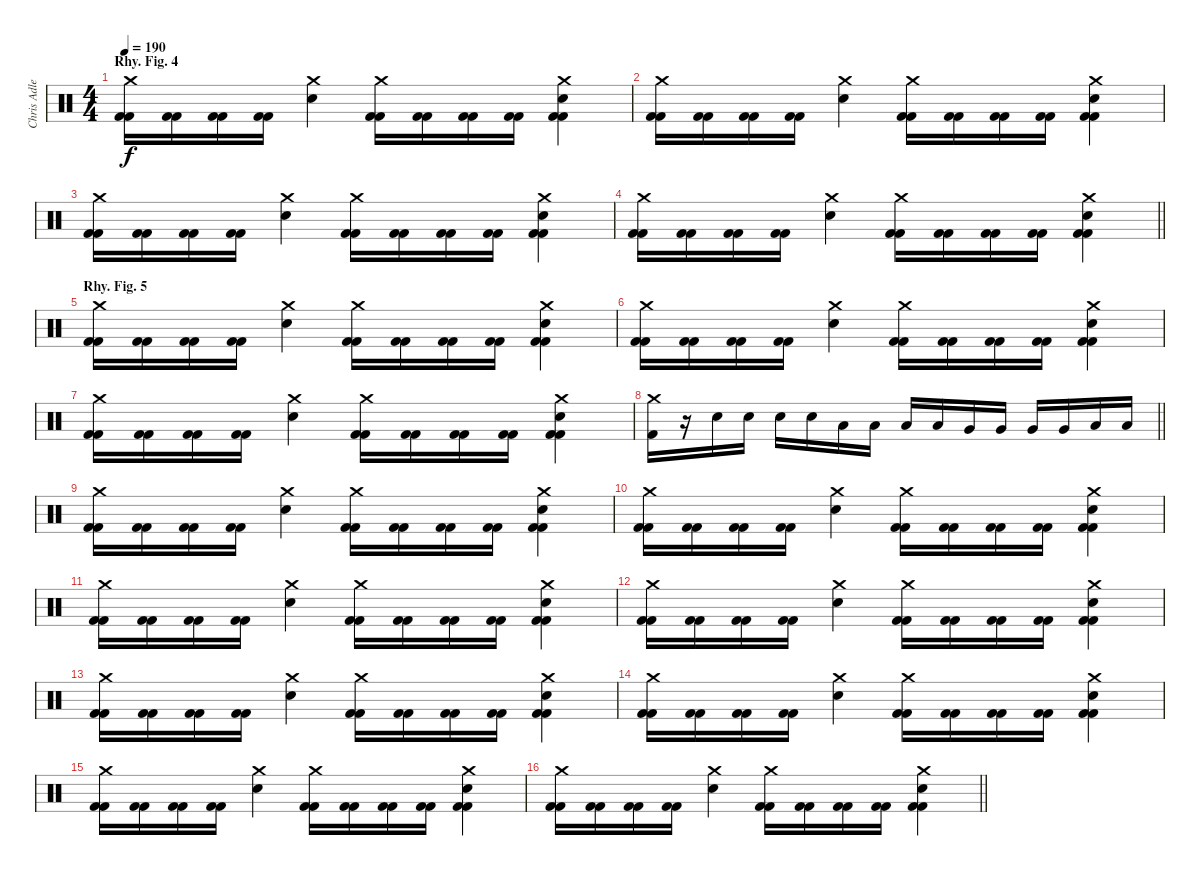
\track ("Chris Adler" "Chris Adle") {instrument percussion}
\staff {score}
\articulation defaults
\ts (4 4)
\section ("" "Rhy. Fig. 4")
\tempo 190
\clef neutral
\ks c
("Crash medium (hit)" "Kick (hit) 2" "Kick (hit) 2").16{dy f} ("Kick (hit) 2" "Kick (hit) 2").16 ("Kick (hit) 2" "Kick (hit) 2").16 ("Kick (hit) 2" "Kick (hit) 2").16 ("Crash medium (hit)" "Electric Snare (hit)").4 ("Crash medium (hit)" "Kick (hit) 2" "Kick (hit) 2").16 ("Kick (hit) 2" "Kick (hit) 2").16 ("Kick (hit) 2" "Kick (hit) 2").16 ("Kick (hit) 2" "Kick (hit) 2").16 ("Crash medium (hit)" "Electric Snare (hit)" "Kick (hit) 2" "Kick (hit) 2").4 |
("Crash medium (hit)" "Kick (hit) 2" "Kick (hit) 2").16 ("Kick (hit) 2" "Kick (hit) 2").16 ("Kick (hit) 2" "Kick (hit) 2").16 ("Kick (hit) 2" "Kick (hit) 2").16 ("Crash medium (hit)" "Electric Snare (hit)").4 ("Crash medium (hit)" "Kick (hit) 2" "Kick (hit) 2").16 ("Kick (hit) 2" "Kick (hit) 2").16 ("Kick (hit) 2" "Kick (hit) 2").16 ("Kick (hit) 2" "Kick (hit) 2").16 ("Crash medium (hit)" "Electric Snare (hit)" "Kick (hit) 2" "Kick (hit) 2").4 |
("Crash medium (hit)" "Kick (hit) 2" "Kick (hit) 2").16 ("Kick (hit) 2" "Kick (hit) 2").16 ("Kick (hit) 2" "Kick (hit) 2").16 ("Kick (hit) 2" "Kick (hit) 2").16 ("Crash medium (hit)" "Electric Snare (hit)").4 ("Crash medium (hit)" "Kick (hit) 2" "Kick (hit) 2").16 ("Kick (hit) 2" "Kick (hit) 2").16 ("Kick (hit) 2" "Kick (hit) 2").16 ("Kick (hit) 2" "Kick (hit) 2").16 ("Crash medium (hit)" "Electric Snare (hit)" "Kick (hit) 2" "Kick (hit) 2").4 |
\barLineRight lightlight
("Crash medium (hit)" "Kick (hit) 2" "Kick (hit) 2").16 ("Kick (hit) 2" "Kick (hit) 2").16 ("Kick (hit) 2" "Kick (hit) 2").16 ("Kick (hit) 2" "Kick (hit) 2").16 ("Crash medium (hit)" "Electric Snare (hit)").4 ("Crash medium (hit)" "Kick (hit) 2" "Kick (hit) 2").16 ("Kick (hit) 2" "Kick (hit) 2").16 ("Kick (hit) 2" "Kick (hit) 2").16 ("Kick (hit) 2" "Kick (hit) 2").16 ("Crash medium (hit)" "Electric Snare (hit)" "Kick (hit) 2" "Kick (hit) 2").4 |
\section ("" "Rhy. Fig. 5")
("Crash medium (hit)" "Kick (hit) 2" "Kick (hit) 2").16 ("Kick (hit) 2" "Kick (hit) 2").16 ("Kick (hit) 2" "Kick (hit) 2").16 ("Kick (hit) 2" "Kick (hit) 2").16 ("Crash medium (hit)" "Electric Snare (hit)").4 ("Crash medium (hit)" "Kick (hit) 2" "Kick (hit) 2").16 ("Kick (hit) 2" "Kick (hit) 2").16 ("Kick (hit) 2" "Kick (hit) 2").16 ("Kick (hit) 2" "Kick (hit) 2").16 ("Crash medium (hit)" "Electric Snare (hit)" "Kick (hit) 2" "Kick (hit) 2").4 |
("Crash medium (hit)" "Kick (hit) 2" "Kick (hit) 2").16 ("Kick (hit) 2" "Kick (hit) 2").16 ("Kick (hit) 2" "Kick (hit) 2").16 ("Kick (hit) 2" "Kick (hit) 2").16 ("Crash medium (hit)" "Electric Snare (hit)").4 ("Crash medium (hit)" "Kick (hit) 2" "Kick (hit) 2").16 ("Kick (hit) 2" "Kick (hit) 2").16 ("Kick (hit) 2" "Kick (hit) 2").16 ("Kick (hit) 2" "Kick (hit) 2").16 ("Crash medium (hit)" "Electric Snare (hit)" "Kick (hit) 2" "Kick (hit) 2").4 |
("Crash medium (hit)" "Kick (hit) 2" "Kick (hit) 2").16 ("Kick (hit) 2" "Kick (hit) 2").16 ("Kick (hit) 2" "Kick (hit) 2").16 ("Kick (hit) 2" "Kick (hit) 2").16 ("Crash medium (hit)" "Electric Snare (hit)").4 ("Crash medium (hit)" "Kick (hit) 2" "Kick (hit) 2").16 ("Kick (hit) 2" "Kick (hit) 2").16 ("Kick (hit) 2" "Kick (hit) 2").16 ("Kick (hit) 2" "Kick (hit) 2").16 ("Crash medium (hit)" "Electric Snare (hit)" "Kick (hit) 2" "Kick (hit) 2").4 |
\barLineRight lightlight
("Kick (hit) 2" "Crash medium (hit)").16 r.16 "Electric Snare (hit)".16 "Electric Snare (hit)".16 "Electric Snare (hit)".16 "Electric Snare (hit)".16 "Low Tom (hit)".16 "Low Tom (hit)".16 "Low Tom (hit)".16 "Low Tom (hit)".16 "Very Low Tom (hit)".16 "Very Low Tom (hit)".16 "Very Low Tom (hit)".16 "Very Low Tom (hit)".16 "Low Floor Tom (hit)".16 "Low Floor Tom (hit)".16 |
("Crash medium (hit)" "Kick (hit) 2" "Kick (hit) 2").16 ("Kick (hit) 2" "Kick (hit) 2").16 ("Kick (hit) 2" "Kick (hit) 2").16 ("Kick (hit) 2" "Kick (hit) 2").16 ("Crash medium (hit)" "Electric Snare (hit)").4 ("Crash medium (hit)" "Kick (hit) 2" "Kick (hit) 2").16 ("Kick (hit) 2" "Kick (hit) 2").16 ("Kick (hit) 2" "Kick (hit) 2").16 ("Kick (hit) 2" "Kick (hit) 2").16 ("Crash medium (hit)" "Electric Snare (hit)" "Kick (hit) 2" "Kick (hit) 2").4 |
("Crash medium (hit)" "Kick (hit) 2" "Kick (hit) 2").16 ("Kick (hit) 2" "Kick (hit) 2").16 ("Kick (hit) 2" "Kick (hit) 2").16 ("Kick (hit) 2" "Kick (hit) 2").16 ("Crash medium (hit)" "Electric Snare (hit)").4 ("Crash medium (hit)" "Kick (hit) 2" "Kick (hit) 2").16 ("Kick (hit) 2" "Kick (hit) 2").16 ("Kick (hit) 2" "Kick (hit) 2").16 ("Kick (hit) 2" "Kick (hit) 2").16 ("Crash medium (hit)" "Electric Snare (hit)" "Kick (hit) 2" "Kick (hit) 2").4 |
("Crash medium (hit)" "Kick (hit) 2" "Kick (hit) 2").16 ("Kick (hit) 2" "Kick (hit) 2").16 ("Kick (hit) 2" "Kick (hit) 2").16 ("Kick (hit) 2" "Kick (hit) 2").16 ("Crash medium (hit)" "Electric Snare (hit)").4 ("Crash medium (hit)" "Kick (hit) 2" "Kick (hit) 2").16 ("Kick (hit) 2" "Kick (hit) 2").16 ("Kick (hit) 2" "Kick (hit) 2").16 ("Kick (hit) 2" "Kick (hit) 2").16 ("Crash medium (hit)" "Electric Snare (hit)" "Kick (hit) 2" "Kick (hit) 2").4 |
("Crash medium (hit)" "Kick (hit) 2" "Kick (hit) 2").16 ("Kick (hit) 2" "Kick (hit) 2").16 ("Kick (hit) 2" "Kick (hit) 2").16 ("Kick (hit) 2" "Kick (hit) 2").16 ("Crash medium (hit)" "Electric Snare (hit)").4 ("Crash medium (hit)" "Kick (hit) 2" "Kick (hit) 2").16 ("Kick (hit) 2" "Kick (hit) 2").16 ("Kick (hit) 2" "Kick (hit) 2").16 ("Kick (hit) 2" "Kick (hit) 2").16 ("Crash medium (hit)" "Electric Snare (hit)" "Kick (hit) 2" "Kick (hit) 2").4 |
("Crash medium (hit)" "Kick (hit) 2" "Kick (hit) 2").16 ("Kick (hit) 2" "Kick (hit) 2").16 ("Kick (hit) 2" "Kick (hit) 2").16 ("Kick (hit) 2" "Kick (hit) 2").16 ("Crash medium (hit)" "Electric Snare (hit)").4 ("Crash medium (hit)" "Kick (hit) 2" "Kick (hit) 2").16 ("Kick (hit) 2" "Kick (hit) 2").16 ("Kick (hit) 2" "Kick (hit) 2").16 ("Kick (hit) 2" "Kick (hit) 2").16 ("Crash medium (hit)" "Electric Snare (hit)" "Kick (hit) 2" "Kick (hit) 2").4 |
("Crash medium (hit)" "Kick (hit) 2" "Kick (hit) 2").16 ("Kick (hit) 2" "Kick (hit) 2").16 ("Kick (hit) 2" "Kick (hit) 2").16 ("Kick (hit) 2" "Kick (hit) 2").16 ("Crash medium (hit)" "Electric Snare (hit)").4 ("Crash medium (hit)" "Kick (hit) 2" "Kick (hit) 2").16 ("Kick (hit) 2" "Kick (hit) 2").16 ("Kick (hit) 2" "Kick (hit) 2").16 ("Kick (hit) 2" "Kick (hit) 2").16 ("Crash medium (hit)" "Electric Snare (hit)" "Kick (hit) 2" "Kick (hit) 2").4 |
("Crash medium (hit)" "Kick (hit) 2" "Kick (hit) 2").16 ("Kick (hit) 2" "Kick (hit) 2").16 ("Kick (hit) 2" "Kick (hit) 2").16 ("Kick (hit) 2" "Kick (hit) 2").16 ("Crash medium (hit)" "Electric Snare (hit)").4 ("Crash medium (hit)" "Kick (hit) 2" "Kick (hit) 2").16 ("Kick (hit) 2" "Kick (hit) 2").16 ("Kick (hit) 2" "Kick (hit) 2").16 ("Kick (hit) 2" "Kick (hit) 2").16 ("Crash medium (hit)" "Electric Snare (hit)" "Kick (hit) 2" "Kick (hit) 2").4 |
\barLineRight lightlight
("Crash medium (hit)" "Kick (hit) 2" "Kick (hit) 2").16 ("Kick (hit) 2" "Kick (hit) 2").16 ("Kick (hit) 2" "Kick (hit) 2").16 ("Kick (hit) 2" "Kick (hit) 2").16 ("Crash medium (hit)" "Electric Snare (hit)").4 ("Crash medium (hit)" "Kick (hit) 2" "Kick (hit) 2").16 ("Kick (hit) 2" "Kick (hit) 2").16 ("Kick (hit) 2" "Kick (hit) 2").16 ("Kick (hit) 2" "Kick (hit) 2").16 ("Crash medium (hit)" "Electric Snare (hit)" "Kick (hit) 2" "Kick (hit) 2").4
